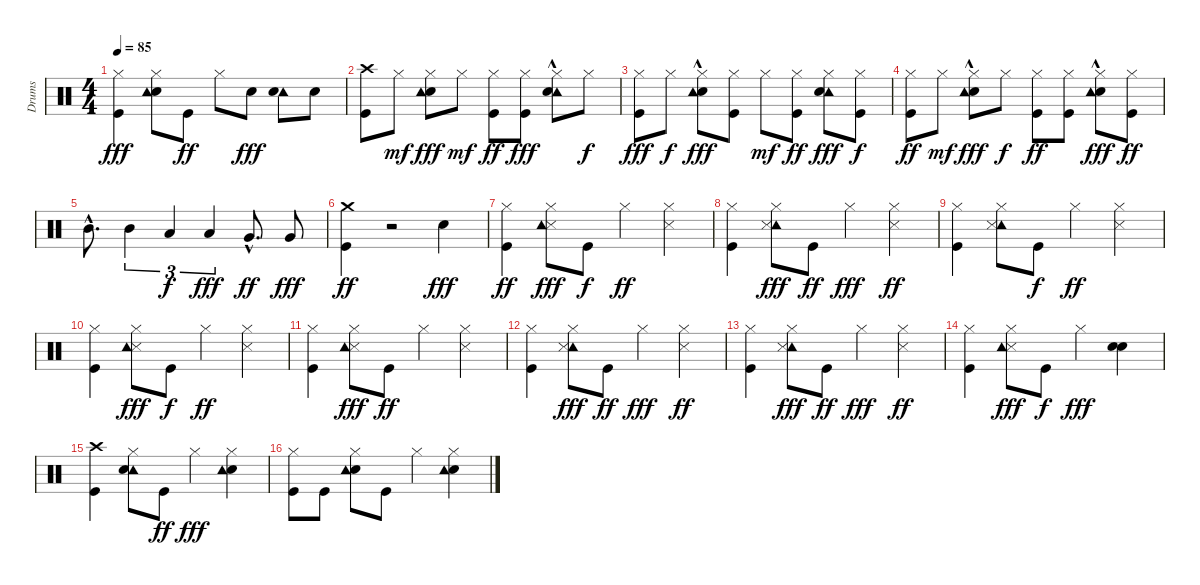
\track ("Drums" "Drums") {instrument percussion}
\staff {score}
\articulation defaults
\ts (4 4)
\tempo 85
\clef neutral
\ks c
("Kick (hit)" "Hi-Hat (closed)").4{dy fff} ("Snare (hit) 2" "Hi-Hat (closed)" "Tambourine (hit)").8 "Kick (hit)".8{dy ff} "Hi-Hat (closed)".8 "Snare (hit) 2".8{dy fff} ("Tambourine (hit)" "Snare (hit) 2").8 "Snare (hit) 2".8 |
("Crash high (hit)" "Kick (hit)").8 "Hi-Hat (closed)".8{dy mf} ("Snare (hit) 2" "Hi-Hat (closed)" "Tambourine (hit)").8{dy fff} "Hi-Hat (closed)".8{dy mf} ("Hi-Hat (closed)" "Kick (hit)").8{dy ff} ("Kick (hit)" "Hi-Hat (closed)").8{dy fff} ("Hi-Hat (closed)" "Tambourine (hit)"{hac} "Snare (hit) 2").8 "Hi-Hat (closed)".8{dy f} |
("Hi-Hat (closed)" "Kick (hit)").8{dy fff} "Hi-Hat (closed)".8{dy f} ("Hi-Hat (closed)" "Snare (hit) 2" "Tambourine (hit)"{hac}).8{dy fff} ("Kick (hit)" "Hi-Hat (closed)").8 "Hi-Hat (closed)".8{dy mf} ("Hi-Hat (closed)" "Kick (hit)").8{dy ff} ("Tambourine (hit)" "Hi-Hat (closed)" "Snare (hit) 2").8{dy fff} ("Hi-Hat (closed)" "Kick (hit)").8{dy f} |
("Hi-Hat (closed)" "Kick (hit)").8{dy ff} "Hi-Hat (closed)".8{dy mf} ("Snare (hit) 2" "Hi-Hat (closed)" "Tambourine (hit)"{hac}).8{dy fff} "Hi-Hat (closed)".8{dy f} ("Hi-Hat (closed)" "Kick (hit)").8{dy ff} ("Hi-Hat (closed)" "Kick (hit)").8 ("Hi-Hat (closed)" "Snare (hit) 2" "Tambourine (hit)"{hac}).8{dy fff} ("Hi-Hat (closed)" "Kick (hit)").8{dy ff} |
"Mid Tom (hit)"{hac}.8{d} "Mid Tom (hit)".4{tu (3 2)} "Low Tom (hit)".4{tu (3 2) dy f} "Low Tom (hit)".4{tu (3 2) dy fff} "Very Low Tom (hit)"{hac}.8{d dy ff} "Very Low Tom (hit)".8{dy fff} |
("Kick (hit)" "Crash medium (hit)").4{dy ff} r.2 "Snare (hit) 2".4{dy fff} |
("Hi-Hat (closed)" "Kick (hit)").4{dy ff} ("Hi-Hat (closed)" "Snare (side stick) 3" "Tambourine (hit)").8{dy fff} "Kick (hit)".8{dy f} "Hi-Hat (closed)".4{dy ff} ("Snare (side stick) 3" "Hi-Hat (closed)").4 |
("Hi-Hat (closed)" "Kick (hit)").4 ("Tambourine (hit)" "Snare (side stick) 3" "Hi-Hat (closed)").8{dy fff} "Kick (hit)".8{dy ff} "Hi-Hat (closed)".4{dy fff} ("Hi-Hat (closed)" "Snare (side stick) 3").4{dy ff} |
("Hi-Hat (closed)" "Kick (hit)").4 ("Tambourine (hit)" "Snare (side stick) 3" "Hi-Hat (closed)").8 "Kick (hit)".8{dy f} "Hi-Hat (closed)".4{dy ff} ("Hi-Hat (closed)" "Snare (side stick) 3").4 |
("Kick (hit)" "Hi-Hat (closed)").4 ("Snare (side stick) 3" "Hi-Hat (closed)" "Tambourine (hit)").8{dy fff} "Kick (hit)".8{dy f} "Hi-Hat (closed)".4{dy ff} ("Hi-Hat (closed)" "Snare (side stick) 3").4 |
("Kick (hit)" "Hi-Hat (closed)").4 ("Snare (side stick) 3" "Hi-Hat (closed)" "Tambourine (hit)").8{dy fff} "Kick (hit)".8{dy ff} "Hi-Hat (closed)".4 ("Hi-Hat (closed)" "Snare (side stick) 3").4 |
("Hi-Hat (closed)" "Kick (hit)").4 ("Tambourine (hit)" "Snare (side stick) 3" "Hi-Hat (closed)").8{dy fff} "Kick (hit)".8{dy ff} "Hi-Hat (closed)".4{dy fff} ("Hi-Hat (closed)" "Snare (side stick) 3").4{dy ff} |
("Hi-Hat (closed)" "Kick (hit)").4 ("Tambourine (hit)" "Snare (side stick) 3" "Hi-Hat (closed)").8{dy fff} "Kick (hit)".8{dy ff} "Hi-Hat (closed)".4{dy fff} ("Hi-Hat (closed)" "Snare (side stick) 3").4{dy ff} |
("Hi-Hat (closed)" "Kick (hit)").4 ("Snare (side stick) 3" "Hi-Hat (closed)" "Tambourine (hit)").8{dy fff} "Kick (hit)".8{dy f} "Hi-Hat (closed)".4{dy fff} ("Snare (hit) 2" "Snare (hit) 2").4 |
("Kick (hit)" "Crash high (hit)").4 ("Tambourine (hit)" "Snare (hit) 2" "Hi-Hat (closed)").8 "Kick (hit)".8{dy ff} "Hi-Hat (closed)".4{dy fff} ("Hi-Hat (closed)" "Snare (hit) 2" "Tambourine (hit)").4 |
("Hi-Hat (closed)" "Kick (hit)").8 "Kick (hit)".8 ("Hi-Hat (closed)" "Snare (hit) 2" "Tambourine (hit)").8 "Kick (hit)".8 "Hi-Hat (closed)".4 ("Snare (hit) 2" "Hi-Hat (closed)" "Tambourine (hit)").4
